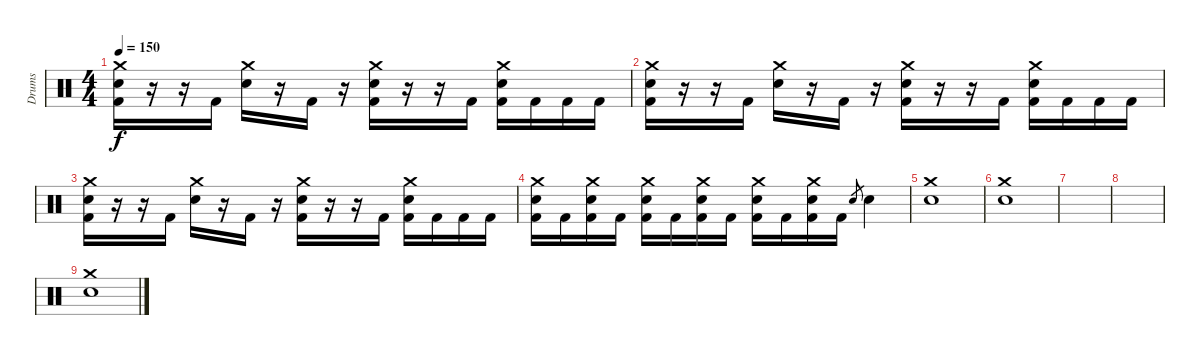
\track ("Drums" "Drums") {instrument percussion}
\staff {score}
\articulation defaults
\ts (4 4)
\tempo 150
\clef neutral
\ks c
("Crash medium (hit)" "Electric Snare (hit)" "Kick (hit) 2").16{dy f} r.16 r.16 "Kick (hit) 2".16 ("Crash medium (hit)" "Electric Snare (hit)").16 r.16 "Kick (hit) 2".16 r.16 ("Crash medium (hit)" "Electric Snare (hit)" "Kick (hit) 2").16 r.16 r.16 "Kick (hit) 2".16 ("Crash medium (hit)" "Electric Snare (hit)" "Kick (hit) 2").16 "Kick (hit) 2".16 "Kick (hit) 2".16 "Kick (hit) 2".16 |
("Crash medium (hit)" "Electric Snare (hit)" "Kick (hit) 2").16 r.16 r.16 "Kick (hit) 2".16 ("Crash medium (hit)" "Electric Snare (hit)").16 r.16 "Kick (hit) 2".16 r.16 ("Crash medium (hit)" "Electric Snare (hit)" "Kick (hit) 2").16 r.16 r.16 "Kick (hit) 2".16 ("Crash medium (hit)" "Electric Snare (hit)" "Kick (hit) 2").16 "Kick (hit) 2".16 "Kick (hit) 2".16 "Kick (hit) 2".16 |
("Crash medium (hit)" "Electric Snare (hit)" "Kick (hit) 2").16 r.16 r.16 "Kick (hit) 2".16 ("Crash medium (hit)" "Electric Snare (hit)").16 r.16 "Kick (hit) 2".16 r.16 ("Crash medium (hit)" "Electric Snare (hit)" "Kick (hit) 2").16 r.16 r.16 "Kick (hit) 2".16 ("Crash medium (hit)" "Electric Snare (hit)" "Kick (hit) 2").16 "Kick (hit) 2".16 "Kick (hit) 2".16 "Kick (hit) 2".16 |
("Crash medium (hit)" "Electric Snare (hit)" "Kick (hit) 2").16 "Kick (hit) 2".16 ("Crash medium (hit)" "Electric Snare (hit)" "Kick (hit) 2").16 "Kick (hit) 2".16 ("Crash medium (hit)" "Electric Snare (hit)" "Kick (hit) 2").16 "Kick (hit) 2".16 ("Crash medium (hit)" "Electric Snare (hit)" "Kick (hit) 2").16 "Kick (hit) 2".16 ("Crash medium (hit)" "Electric Snare (hit)" "Kick (hit) 2").16 "Kick (hit) 2".16 ("Crash medium (hit)" "Electric Snare (hit)" "Kick (hit) 2").16 "Kick (hit) 2".16 "Electric Snare (hit)".8{gr} "Electric Snare (hit)".4 |
("Crash medium (hit)" "Electric Snare (hit)").1 |
("Crash medium (hit)" "Electric Snare (hit)").1 |
|
|
("Crash medium (hit)" "Electric Snare (hit)").1
